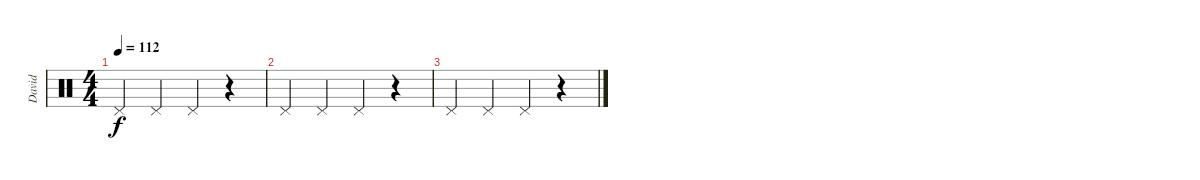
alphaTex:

\track ("David" "David") {instrument percussion}
\staff {score}
\articulation defaults
\ts (4 4)
\tempo 112
\clef neutral
\ks c "Pedal Hi-Hat (hit)".4{dy f} "Pedal Hi-Hat (hit)".4 "Pedal Hi-Hat (hit)".4
r.4 |
"Pedal Hi-Hat (hit)".4 "Pedal Hi-Hat (hit)".4 "Pedal Hi-Hat (hit)".4 r.4 |
"Pedal Hi-Hat (hit)".4 "Pedal Hi-Hat (hit)".4 "Pedal Hi-Hat (hit)".4 r.4
